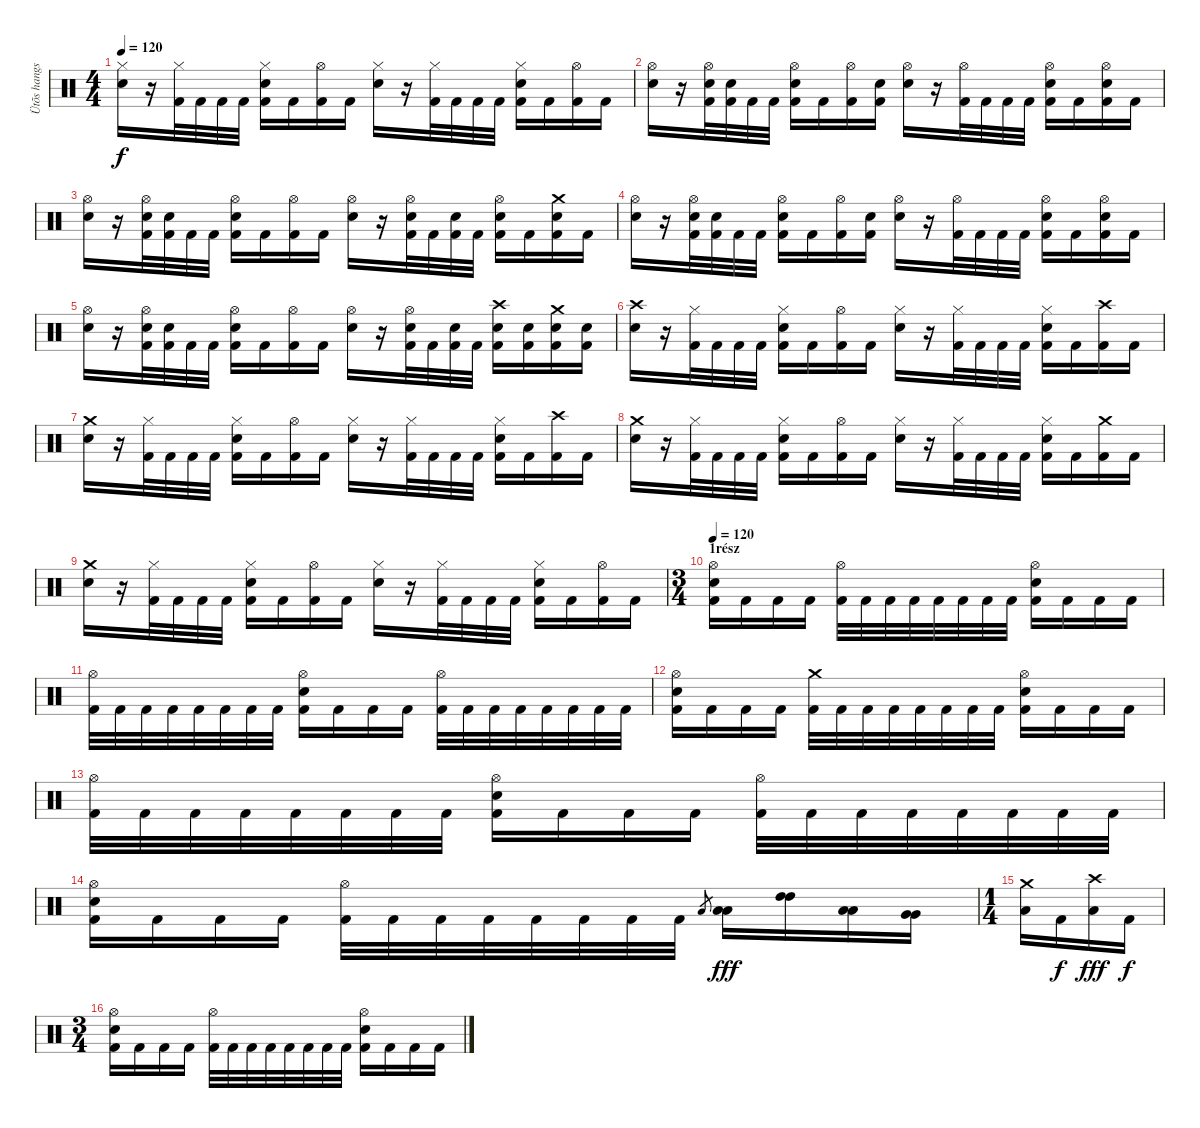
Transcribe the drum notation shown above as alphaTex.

\track ("Ütõs hangszer" "Ütõs hangs") {instrument percussion}
\staff {score}
\articulation defaults
\ts (4 4)
\tempo 120
\clef neutral
\ks c
("Hi-Hat (closed)" "Electric Snare (hit)").16{dy f} r.16 ("Hi-Hat (closed)" "Kick (hit) 2").32 "Kick (hit) 2".32 "Kick (hit) 2".32 "Kick (hit) 2".32 ("Hi-Hat (closed)" "Electric Snare (hit)" "Kick (hit) 2").16 "Kick (hit) 2".16 ("Hi-Hat (open)" "Kick (hit) 2").16 "Kick (hit) 2".16 ("Hi-Hat (closed)" "Electric Snare (hit)").16 r.16 ("Hi-Hat (closed)" "Kick (hit) 2").32 "Kick (hit) 2".32 "Kick (hit) 2".32 "Kick (hit) 2".32 ("Hi-Hat (closed)" "Electric Snare (hit)" "Kick (hit) 2").16 "Kick (hit) 2".16 ("Hi-Hat (open)" "Kick (hit) 2").16 "Kick (hit) 2".16 |
("Hi-Hat (open)" "Electric Snare (hit)").16 r.16 ("Hi-Hat (open)" "Electric Snare (hit)" "Kick (hit) 2").32 ("Electric Snare (hit)" "Kick (hit) 2").32 "Kick (hit) 2".32 "Kick (hit) 2".32 ("Hi-Hat (open)" "Electric Snare (hit)" "Kick (hit) 2").16 "Kick (hit) 2".16 ("Hi-Hat (open)" "Kick (hit) 2").16 ("Electric Snare (hit)" "Kick (hit) 2").16 ("Hi-Hat (open)" "Electric Snare (hit)").16 r.16 ("Hi-Hat (open)" "Kick (hit) 2").32 "Kick (hit) 2".32 "Kick (hit) 2".32 "Kick (hit) 2".32 ("Hi-Hat (open)" "Electric Snare (hit)" "Kick (hit) 2").16 "Kick (hit) 2".16 ("Hi-Hat (open)" "Electric Snare (hit)" "Kick (hit) 2").16 "Kick (hit) 2".16 |
("Hi-Hat (open)" "Electric Snare (hit)").16 r.16 ("Hi-Hat (open)" "Electric Snare (hit)" "Kick (hit) 2").32 ("Electric Snare (hit)" "Kick (hit) 2").32 "Kick (hit) 2".32 "Kick (hit) 2".32 ("Hi-Hat (open)" "Electric Snare (hit)" "Kick (hit) 2").16 "Kick (hit) 2".16 ("Hi-Hat (open)" "Kick (hit) 2").16 "Kick (hit) 2".16 ("Hi-Hat (open)" "Electric Snare (hit)").16 r.16 ("Hi-Hat (open)" "Electric Snare (hit)" "Kick (hit) 2").32 "Kick (hit) 2".32 ("Electric Snare (hit)" "Kick (hit) 2").32 "Kick (hit) 2".32 ("Hi-Hat (open)" "Electric Snare (hit)" "Kick (hit) 2").16 "Kick (hit) 2".16 ("Crash medium (hit)" "Electric Snare (hit)" "Kick (hit) 2").16 "Kick (hit) 2".16 |
("Hi-Hat (open)" "Electric Snare (hit)").16 r.16 ("Hi-Hat (open)" "Electric Snare (hit)" "Kick (hit) 2").32 ("Electric Snare (hit)" "Kick (hit) 2").32 "Kick (hit) 2".32 "Kick (hit) 2".32 ("Hi-Hat (open)" "Electric Snare (hit)" "Kick (hit) 2").16 "Kick (hit) 2".16 ("Hi-Hat (open)" "Kick (hit) 2").16 ("Electric Snare (hit)" "Kick (hit) 2").16 ("Hi-Hat (open)" "Electric Snare (hit)").16 r.16 ("Hi-Hat (open)" "Kick (hit) 2").32 "Kick (hit) 2".32 "Kick (hit) 2".32 "Kick (hit) 2".32 ("Hi-Hat (open)" "Electric Snare (hit)" "Kick (hit) 2").16 "Kick (hit) 2".16 ("Hi-Hat (open)" "Electric Snare (hit)" "Kick (hit) 2").16 "Kick (hit) 2".16 |
("Hi-Hat (open)" "Electric Snare (hit)").16 r.16 ("Hi-Hat (open)" "Electric Snare (hit)" "Kick (hit) 2").32 ("Electric Snare (hit)" "Kick (hit) 2").32 "Kick (hit) 2".32 "Kick (hit) 2".32 ("Hi-Hat (open)" "Electric Snare (hit)" "Kick (hit) 2").16 "Kick (hit) 2".16 ("Hi-Hat (open)" "Kick (hit) 2").16 "Kick (hit) 2".16 ("Hi-Hat (open)" "Electric Snare (hit)").16 r.16 ("Hi-Hat (open)" "Electric Snare (hit)" "Kick (hit) 2").32 "Kick (hit) 2".32 ("Electric Snare (hit)" "Kick (hit) 2").32 "Kick (hit) 2".32 ("Crash high (hit)" "Electric Snare (hit)" "Kick (hit) 2").16 ("Electric Snare (hit)" "Kick (hit) 2").16 ("Crash medium (hit)" "Electric Snare (hit)" "Kick (hit) 2").16 ("Electric Snare (hit)" "Kick (hit) 2").16 |
("Crash high (hit)" "Electric Snare (hit)").16 r.16 ("Hi-Hat (closed)" "Kick (hit) 2").32 "Kick (hit) 2".32 "Kick (hit) 2".32 "Kick (hit) 2".32 ("Hi-Hat (closed)" "Electric Snare (hit)" "Kick (hit) 2").16 "Kick (hit) 2".16 ("Hi-Hat (open)" "Kick (hit) 2").16 "Kick (hit) 2".16 ("Hi-Hat (closed)" "Electric Snare (hit)").16 r.16 ("Hi-Hat (closed)" "Kick (hit) 2").32 "Kick (hit) 2".32 "Kick (hit) 2".32 "Kick (hit) 2".32 ("Hi-Hat (closed)" "Electric Snare (hit)" "Kick (hit) 2").16 "Kick (hit) 2".16 ("Crash high (hit)" "Kick (hit) 2").16 "Kick (hit) 2".16 |
("Crash medium (hit)" "Electric Snare (hit)").16 r.16 ("Hi-Hat (closed)" "Kick (hit) 2").32 "Kick (hit) 2".32 "Kick (hit) 2".32 "Kick (hit) 2".32 ("Hi-Hat (closed)" "Electric Snare (hit)" "Kick (hit) 2").16 "Kick (hit) 2".16 ("Hi-Hat (open)" "Kick (hit) 2").16 "Kick (hit) 2".16 ("Hi-Hat (closed)" "Electric Snare (hit)").16 r.16 ("Hi-Hat (closed)" "Kick (hit) 2").32 "Kick (hit) 2".32 "Kick (hit) 2".32 "Kick (hit) 2".32 ("Hi-Hat (closed)" "Electric Snare (hit)" "Kick (hit) 2").16 "Kick (hit) 2".16 ("Crash high (hit)" "Kick (hit) 2").16 "Kick (hit) 2".16 |
("Crash medium (hit)" "Electric Snare (hit)").16 r.16 ("Hi-Hat (closed)" "Kick (hit) 2").32 "Kick (hit) 2".32 "Kick (hit) 2".32 "Kick (hit) 2".32 ("Hi-Hat (closed)" "Electric Snare (hit)" "Kick (hit) 2").16 "Kick (hit) 2".16 ("Hi-Hat (open)" "Kick (hit) 2").16 "Kick (hit) 2".16 ("Hi-Hat (closed)" "Electric Snare (hit)").16 r.16 ("Hi-Hat (closed)" "Kick (hit) 2").32 "Kick (hit) 2".32 "Kick (hit) 2".32 "Kick (hit) 2".32 ("Hi-Hat (closed)" "Electric Snare (hit)" "Kick (hit) 2").16 "Kick (hit) 2".16 ("Crash medium (hit)" "Kick (hit) 2").16 "Kick (hit) 2".16 |
("Crash medium (hit)" "Electric Snare (hit)").16 r.16 ("Hi-Hat (closed)" "Kick (hit) 2").32 "Kick (hit) 2".32 "Kick (hit) 2".32 "Kick (hit) 2".32 ("Hi-Hat (closed)" "Electric Snare (hit)" "Kick (hit) 2").16 "Kick (hit) 2".16 ("Hi-Hat (open)" "Kick (hit) 2").16 "Kick (hit) 2".16 ("Hi-Hat (closed)" "Electric Snare (hit)").16 r.16 ("Hi-Hat (closed)" "Kick (hit) 2").32 "Kick (hit) 2".32 "Kick (hit) 2".32 "Kick (hit) 2".32 ("Hi-Hat (closed)" "Electric Snare (hit)" "Kick (hit) 2").16 "Kick (hit) 2".16 ("Hi-Hat (open)" "Kick (hit) 2").16 "Kick (hit) 2".16 |
\ts (3 4)
\section ("" "1rész")
\tempo 120
("Hi-Hat (open)" "Electric Snare (hit)" "Kick (hit) 2").16 "Kick (hit) 2".16 "Kick (hit) 2".16 "Kick (hit) 2".16 ("Hi-Hat (open)" "Kick (hit) 2").32 "Kick (hit) 2".32 "Kick (hit) 2".32 "Kick (hit) 2".32 "Kick (hit) 2".32 "Kick (hit) 2".32 "Kick (hit) 2".32 "Kick (hit) 2".32 ("Hi-Hat (open)" "Electric Snare (hit)" "Kick (hit) 2").16 "Kick (hit) 2".16 "Kick (hit) 2".16 "Kick (hit) 2".16 |
("Hi-Hat (open)" "Kick (hit) 2").32 "Kick (hit) 2".32 "Kick (hit) 2".32 "Kick (hit) 2".32 "Kick (hit) 2".32 "Kick (hit) 2".32 "Kick (hit) 2".32 "Kick (hit) 2".32 ("Hi-Hat (open)" "Electric Snare (hit)" "Kick (hit) 2").16 "Kick (hit) 2".16 "Kick (hit) 2".16 "Kick (hit) 2".16 ("Hi-Hat (open)" "Kick (hit) 2").32 "Kick (hit) 2".32 "Kick (hit) 2".32 "Kick (hit) 2".32 "Kick (hit) 2".32 "Kick (hit) 2".32 "Kick (hit) 2".32 "Kick (hit) 2".32 |
("Hi-Hat (open)" "Electric Snare (hit)" "Kick (hit) 2").16 "Kick (hit) 2".16 "Kick (hit) 2".16 "Kick (hit) 2".16 ("Crash medium (hit)" "Kick (hit) 2").32 "Kick (hit) 2".32 "Kick (hit) 2".32 "Kick (hit) 2".32 "Kick (hit) 2".32 "Kick (hit) 2".32 "Kick (hit) 2".32 "Kick (hit) 2".32 ("Hi-Hat (open)" "Electric Snare (hit)" "Kick (hit) 2").16 "Kick (hit) 2".16 "Kick (hit) 2".16 "Kick (hit) 2".16 |
("Hi-Hat (open)" "Kick (hit) 2").32 "Kick (hit) 2".32 "Kick (hit) 2".32 "Kick (hit) 2".32 "Kick (hit) 2".32 "Kick (hit) 2".32 "Kick (hit) 2".32 "Kick (hit) 2".32 ("Hi-Hat (open)" "Electric Snare (hit)" "Kick (hit) 2").16 "Kick (hit) 2".16 "Kick (hit) 2".16 "Kick (hit) 2".16 ("Hi-Hat (open)" "Kick (hit) 2").32 "Kick (hit) 2".32 "Kick (hit) 2".32 "Kick (hit) 2".32 "Kick (hit) 2".32 "Kick (hit) 2".32 "Kick (hit) 2".32 "Kick (hit) 2".32 |
("Hi-Hat (open)" "Electric Snare (hit)" "Kick (hit) 2").16 "Kick (hit) 2".16 "Kick (hit) 2".16 "Kick (hit) 2".16 ("Hi-Hat (open)" "Kick (hit) 2").32 "Kick (hit) 2".32 "Kick (hit) 2".32 "Kick (hit) 2".32 "Kick (hit) 2".32 "Kick (hit) 2".32 "Kick (hit) 2".32 "Kick (hit) 2".32 "Low Tom (hit)".8{gr} ("Low Tom (hit)" "Low Tom (hit)").16{dy fff} ("High Tom (hit)" "High Tom (hit)").16 ("Low Tom (hit)" "Low Tom (hit)").16 ("Very Low Tom (hit)" "Very Low Tom (hit)").16 |
\ts (1 4)
("Crash medium (hit)" "Low Floor Tom (hit)").16 "Kick (hit) 2".16{dy f} ("Crash high (hit)" "Low Floor Tom (hit)").16{dy fff} "Kick (hit) 2".16{dy f} |
\ts (3 4)
("Hi-Hat (open)" "Electric Snare (hit)" "Kick (hit) 2").16 "Kick (hit) 2".16 "Kick (hit) 2".16 "Kick (hit) 2".16 ("Hi-Hat (open)" "Kick (hit) 2").32 "Kick (hit) 2".32 "Kick (hit) 2".32 "Kick (hit) 2".32 "Kick (hit) 2".32 "Kick (hit) 2".32 "Kick (hit) 2".32 "Kick (hit) 2".32 ("Hi-Hat (open)" "Electric Snare (hit)" "Kick (hit) 2").16 "Kick (hit) 2".16 "Kick (hit) 2".16 "Kick (hit) 2".16
